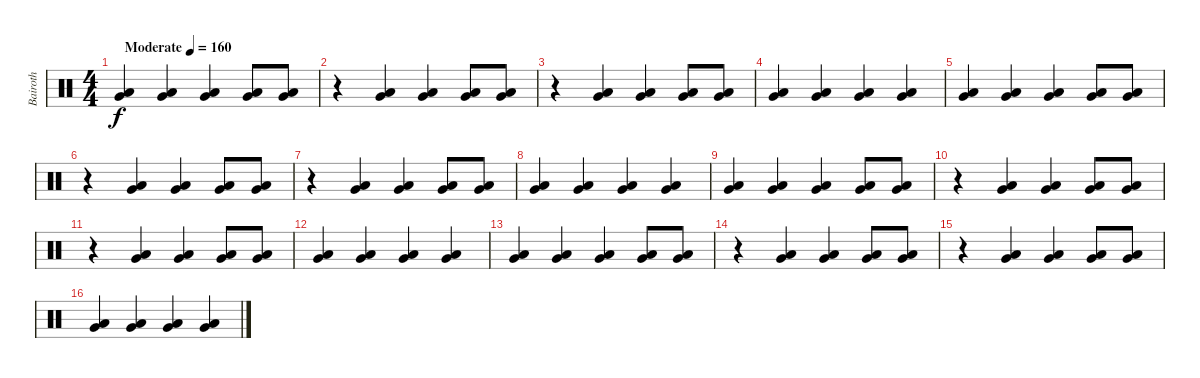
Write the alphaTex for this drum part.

\track ("Bairoth" "Bairoth") {instrument percussion}
\staff {score}
\articulation defaults
\ts (4 4)
\tempo (160 "Moderate")
\clef neutral
\ks c
("Low Tom (hit)" "Very Low Tom (hit)").4{dy f} ("Low Tom (hit)" "Very Low Tom (hit)").4 ("Low Tom (hit)" "Very Low Tom (hit)").4 ("Low Tom (hit)" "Very Low Tom (hit)").8 ("Low Tom (hit)" "Very Low Tom (hit)").8 |
r.4 ("Low Tom (hit)" "Very Low Tom (hit)").4 ("Low Tom (hit)" "Very Low Tom (hit)").4 ("Low Tom (hit)" "Very Low Tom (hit)").8 ("Low Tom (hit)" "Very Low Tom (hit)").8 |
r.4 ("Low Tom (hit)" "Very Low Tom (hit)").4 ("Low Tom (hit)" "Very Low Tom (hit)").4 ("Low Tom (hit)" "Very Low Tom (hit)").8 ("Low Tom (hit)" "Very Low Tom (hit)").8 |
("Low Tom (hit)" "Very Low Tom (hit)").4 ("Low Tom (hit)" "Very Low Tom (hit)").4 ("Low Tom (hit)" "Very Low Tom (hit)").4 ("Low Tom (hit)" "Very Low Tom (hit)").4 |
("Low Tom (hit)" "Very Low Tom (hit)").4 ("Low Tom (hit)" "Very Low Tom (hit)").4 ("Low Tom (hit)" "Very Low Tom (hit)").4 ("Low Tom (hit)" "Very Low Tom (hit)").8 ("Low Tom (hit)" "Very Low Tom (hit)").8 |
r.4 ("Low Tom (hit)" "Very Low Tom (hit)").4 ("Low Tom (hit)" "Very Low Tom (hit)").4 ("Low Tom (hit)" "Very Low Tom (hit)").8 ("Low Tom (hit)" "Very Low Tom (hit)").8 |
r.4 ("Low Tom (hit)" "Very Low Tom (hit)").4 ("Low Tom (hit)" "Very Low Tom (hit)").4 ("Low Tom (hit)" "Very Low Tom (hit)").8 ("Low Tom (hit)" "Very Low Tom (hit)").8 |
("Low Tom (hit)" "Very Low Tom (hit)").4 ("Low Tom (hit)" "Very Low Tom (hit)").4 ("Low Tom (hit)" "Very Low Tom (hit)").4 ("Low Tom (hit)" "Very Low Tom (hit)").4 |
("Low Tom (hit)" "Very Low Tom (hit)").4 ("Low Tom (hit)" "Very Low Tom (hit)").4 ("Low Tom (hit)" "Very Low Tom (hit)").4 ("Low Tom (hit)" "Very Low Tom (hit)").8 ("Low Tom (hit)" "Very Low Tom (hit)").8 |
r.4 ("Low Tom (hit)" "Very Low Tom (hit)").4 ("Low Tom (hit)" "Very Low Tom (hit)").4 ("Low Tom (hit)" "Very Low Tom (hit)").8 ("Low Tom (hit)" "Very Low Tom (hit)").8 |
r.4 ("Low Tom (hit)" "Very Low Tom (hit)").4 ("Low Tom (hit)" "Very Low Tom (hit)").4 ("Low Tom (hit)" "Very Low Tom (hit)").8 ("Low Tom (hit)" "Very Low Tom (hit)").8 |
("Low Tom (hit)" "Very Low Tom (hit)").4 ("Low Tom (hit)" "Very Low Tom (hit)").4 ("Low Tom (hit)" "Very Low Tom (hit)").4 ("Low Tom (hit)" "Very Low Tom (hit)").4 |
("Low Tom (hit)" "Very Low Tom (hit)").4 ("Low Tom (hit)" "Very Low Tom (hit)").4 ("Low Tom (hit)" "Very Low Tom (hit)").4 ("Low Tom (hit)" "Very Low Tom (hit)").8 ("Low Tom (hit)" "Very Low Tom (hit)").8 |
r.4 ("Low Tom (hit)" "Very Low Tom (hit)").4 ("Low Tom (hit)" "Very Low Tom (hit)").4 ("Low Tom (hit)" "Very Low Tom (hit)").8 ("Low Tom (hit)" "Very Low Tom (hit)").8 |
r.4 ("Low Tom (hit)" "Very Low Tom (hit)").4 ("Low Tom (hit)" "Very Low Tom (hit)").4 ("Low Tom (hit)" "Very Low Tom (hit)").8 ("Low Tom (hit)" "Very Low Tom (hit)").8 |
("Low Tom (hit)" "Very Low Tom (hit)").4 ("Low Tom (hit)" "Very Low Tom (hit)").4 ("Low Tom (hit)" "Very Low Tom (hit)").4 ("Low Tom (hit)" "Very Low Tom (hit)").4
